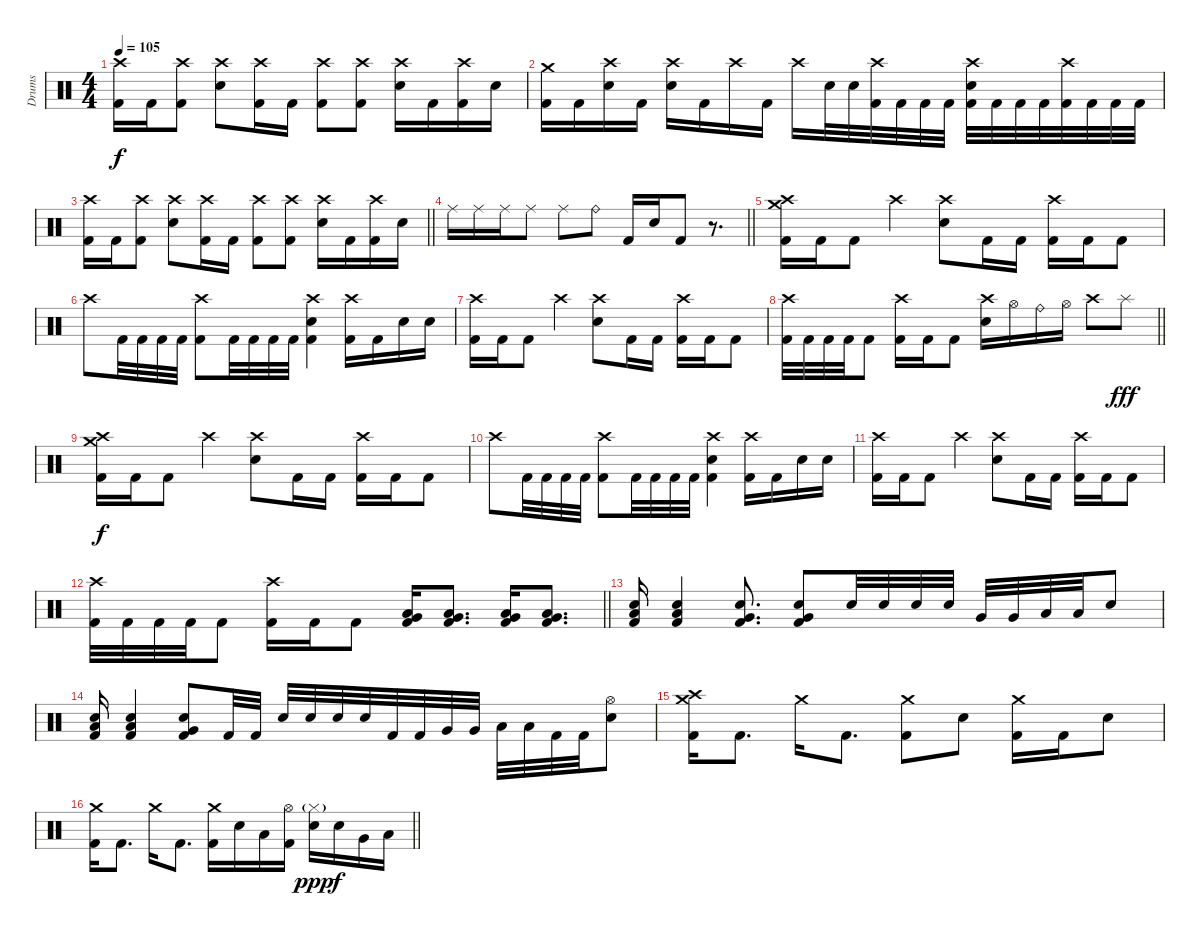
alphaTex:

\track ("Drums" "Drums") {instrument percussion}
\staff {score}
\articulation defaults
\ts (4 4)
\tempo 105
\clef neutral
\ks c
("Crash high (hit)" "Kick (hit) 2").16{dy f} "Kick (hit) 2".16 ("Crash high (hit)" "Kick (hit) 2").8 ("Crash high (hit)" "Electric Snare (hit)").8 ("Crash high (hit)" "Kick (hit) 2").16 "Kick (hit) 2".16 ("Crash high (hit)" "Kick (hit) 2").8 ("Crash high (hit)" "Kick (hit) 2").8 ("Crash high (hit)" "Electric Snare (hit)").16 "Kick (hit) 2".16 ("Crash high (hit)" "Kick (hit) 2").16 "Electric Snare (hit)".16 |
("Crash medium (hit)" "Kick (hit) 2").16 "Kick (hit) 2".16 ("Crash high (hit)" "Electric Snare (hit)").16 "Kick (hit) 2".16 ("Crash high (hit)" "Electric Snare (hit)").16 "Kick (hit) 2".16 "Crash high (hit)".16 "Kick (hit) 2".16 "Crash high (hit)".16 "Electric Snare (hit)".32 "Electric Snare (hit)".32 ("Crash high (hit)" "Kick (hit) 2").32 "Kick (hit) 2".32 "Kick (hit) 2".32 "Kick (hit) 2".32 ("Crash high (hit)" "Electric Snare (hit)" "Kick (hit) 2").32 "Kick (hit) 2".32 "Kick (hit) 2".32 "Kick (hit) 2".32 ("Crash high (hit)" "Kick (hit) 2").32 "Kick (hit) 2".32 "Kick (hit) 2".32 "Kick (hit) 2".32 |
\barLineRight lightlight
("Crash high (hit)" "Kick (hit) 2").16 "Kick (hit) 2".16 ("Crash high (hit)" "Kick (hit) 2").8 ("Crash high (hit)" "Electric Snare (hit)").8 ("Crash high (hit)" "Kick (hit) 2").16 "Kick (hit) 2".16 ("Crash high (hit)" "Kick (hit) 2").8 ("Crash high (hit)" "Kick (hit) 2").8 ("Crash high (hit)" "Electric Snare (hit)").16 "Kick (hit) 2".16 ("Crash high (hit)" "Kick (hit) 2").16 "Electric Snare (hit)".16 |
\section ("" "")
\barLineRight lightlight "Ride (middle)".16 "Ride (middle)".16 "Ride (middle)".16 "Ride (middle)".8 "Ride (middle)".8 "Ride (bell)".8 "Kick (hit) 2".16 "Electric Snare (hit)".16 "Kick (hit) 2".8
r.8{d} |
\section ("" "")
("Crash high (hit)" "Crash medium (hit)" "Kick (hit) 2").16 "Kick (hit) 2".16 "Kick (hit) 2".8 "Crash high (hit)".4 ("Crash high (hit)" "Electric Snare (hit)").8 "Kick (hit) 2".16 "Kick (hit) 2".16 ("Crash high (hit)" "Kick (hit) 2").16 "Kick (hit) 2".16 "Kick (hit) 2".8 |
"Crash high (hit)".8 "Kick (hit) 2".32 "Kick (hit) 2".32 "Kick (hit) 2".32 "Kick (hit) 2".32 ("Crash high (hit)" "Kick (hit) 2").8 "Kick (hit) 2".32 "Kick (hit) 2".32 "Kick (hit) 2".32 "Kick (hit) 2".32 ("Crash high (hit)" "Electric Snare (hit)" "Kick (hit) 2").4 ("Crash high (hit)" "Kick (hit) 2").16 "Kick (hit) 2".16 "Electric Snare (hit)".16 "Electric Snare (hit)".16 |
("Crash high (hit)" "Kick (hit) 2").16 "Kick (hit) 2".16 "Kick (hit) 2".8 "Crash high (hit)".4 ("Crash high (hit)" "Electric Snare (hit)").8 "Kick (hit) 2".16 "Kick (hit) 2".16 ("Crash high (hit)" "Kick (hit) 2").16 "Kick (hit) 2".16 "Kick (hit) 2".8 |
\barLineRight lightlight
("Crash high (hit)" "Kick (hit) 2").32 "Kick (hit) 2".32 "Kick (hit) 2".32 "Kick (hit) 2".32 "Kick (hit) 2".8 ("Crash high (hit)" "Kick (hit) 2").16 "Kick (hit) 2".16 "Kick (hit) 2".8 ("Crash high (hit)" "Electric Snare (hit)").16 "Hi-Hat (open)".16 "Ride (bell)".16 "Hi-Hat (open)".16 "Crash high (hit)".8 "Splash (hit)".8{dy fff} |
\section ("" "")
("Crash high (hit)" "Crash medium (hit)" "Kick (hit) 2").16{dy f} "Kick (hit) 2".16 "Kick (hit) 2".8 "Crash high (hit)".4 ("Crash high (hit)" "Electric Snare (hit)").8 "Kick (hit) 2".16 "Kick (hit) 2".16 ("Crash high (hit)" "Kick (hit) 2").16 "Kick (hit) 2".16 "Kick (hit) 2".8 |
"Crash high (hit)".8 "Kick (hit) 2".32 "Kick (hit) 2".32 "Kick (hit) 2".32 "Kick (hit) 2".32 ("Crash high (hit)" "Kick (hit) 2").8 "Kick (hit) 2".32 "Kick (hit) 2".32 "Kick (hit) 2".32 "Kick (hit) 2".32 ("Crash high (hit)" "Electric Snare (hit)" "Kick (hit) 2").4 ("Crash high (hit)" "Kick (hit) 2").16 "Kick (hit) 2".16 "Electric Snare (hit)".16 "Electric Snare (hit)".16 |
("Crash high (hit)" "Kick (hit) 2").16 "Kick (hit) 2".16 "Kick (hit) 2".8 "Crash high (hit)".4 ("Crash high (hit)" "Electric Snare (hit)").8 "Kick (hit) 2".16 "Kick (hit) 2".16 ("Crash high (hit)" "Kick (hit) 2").16 "Kick (hit) 2".16 "Kick (hit) 2".8 |
\barLineRight lightlight
("Crash high (hit)" "Kick (hit) 2").32 "Kick (hit) 2".32 "Kick (hit) 2".32 "Kick (hit) 2".32 "Kick (hit) 2".8 ("Crash high (hit)" "Kick (hit) 2").16 "Kick (hit) 2".16 "Kick (hit) 2".8 ("Low Tom (hit)" "Very Low Tom (hit)" "Kick (hit) 2").16 ("Low Tom (hit)" "Very Low Tom (hit)" "Kick (hit) 2").8{d} ("Very Low Tom (hit)" "Low Floor Tom (hit)" "Kick (hit) 2").16 ("Very Low Tom (hit)" "Low Floor Tom (hit)" "Kick (hit) 2").8{d} |
\section ("" "")
("Low Tom (hit)" "Electric Snare (hit)" "Kick (hit) 2").16 ("Low Tom (hit)" "Electric Snare (hit)" "Kick (hit) 2").4 ("Very Low Tom (hit)" "Electric Snare (hit)" "Kick (hit) 2").8{d} ("Very Low Tom (hit)" "Electric Snare (hit)" "Kick (hit) 2").8 "Electric Snare (hit)".32 "Electric Snare (hit)".32 "Electric Snare (hit)".32 "Electric Snare (hit)".32 "Very Low Tom (hit)".32 "Very Low Tom (hit)".32 "Low Floor Tom (hit)".32 "Low Floor Tom (hit)".32 "Electric Snare (hit)".8 |
("Low Tom (hit)" "Electric Snare (hit)" "Kick (hit) 2").16 ("Low Tom (hit)" "Electric Snare (hit)" "Kick (hit) 2").4 ("Very Low Tom (hit)" "Electric Snare (hit)" "Kick (hit) 2").8 "Kick (hit) 2".32 "Kick (hit) 2".32 "Electric Snare (hit)".32 "Electric Snare (hit)".32 "Electric Snare (hit)".32 "Electric Snare (hit)".32 "Kick (hit) 2".32 "Kick (hit) 2".32 "Very Low Tom (hit)".32 "Very Low Tom (hit)".32 "Low Floor Tom (hit)".32 "Low Floor Tom (hit)".32 "Kick (hit) 2".32 "Kick (hit) 2".32 ("Hi-Hat (open)" "Electric Snare (hit)").8 |
("Crash medium (hit)" "Crash high (hit)" "Kick (hit) 2").16 "Kick (hit) 2".8{d} "Crash medium (hit)".16 "Kick (hit) 2".8{d} ("Crash medium (hit)" "Kick (hit) 2").8 "Electric Snare (hit)".8 ("Crash medium (hit)" "Kick (hit) 2").16 "Kick (hit) 2".16 "Electric Snare (hit)".8 |
\barLineRight lightlight
("Crash medium (hit)" "Kick (hit) 2").16 "Kick (hit) 2".8{d} "Crash medium (hit)".16 "Kick (hit) 2".8{d} ("Crash medium (hit)" "Kick (hit) 2").16 "Electric Snare (hit)".16 "Low Tom (hit)".16 ("Hi-Hat (open)" "Kick (hit) 2").16 ("Hi-Hat (closed)"{g} "Electric Snare (hit)").16{dy ppp} "Electric Snare (hit)".16{dy f} "Very Low Tom (hit)".16 "Low Floor Tom (hit)".16
